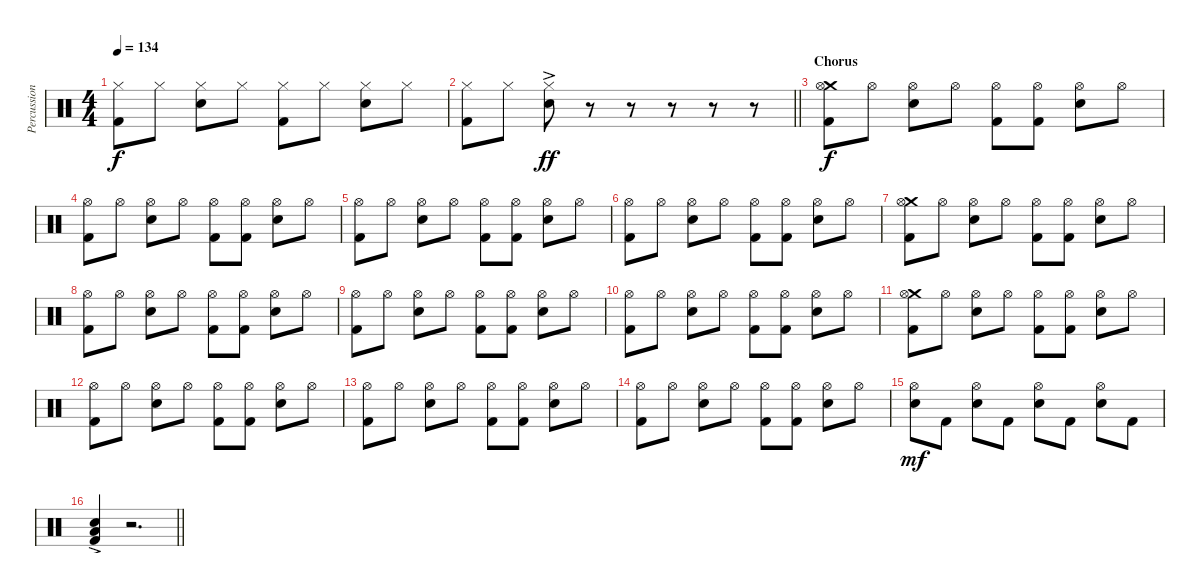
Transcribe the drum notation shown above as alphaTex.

\track ("Percussion" "Percussion") {instrument percussion}
\staff {score}
\articulation defaults
\ts (4 4)
\tempo 134
\clef neutral
\ks c
("Hi-Hat (closed)" "Kick (hit) 2").8{dy f} "Hi-Hat (closed)".8 ("Hi-Hat (closed)" "Snare (hit) 2").8 "Hi-Hat (closed)".8 ("Hi-Hat (closed)" "Kick (hit) 2").8 "Hi-Hat (closed)".8 ("Hi-Hat (closed)" "Snare (hit) 2").8 "Hi-Hat (closed)".8 |
\barLineRight lightlight
("Hi-Hat (closed)" "Kick (hit) 2").8 "Hi-Hat (closed)".8 ("Hi-Hat (closed)"{ac} "Snare (hit) 2"{ac}).8{dy ff} r.8 r.8 r.8 r.8 r.8 |
\section ("" "Chorus")
("Crash medium (hit)" "Hi-Hat (open)" "Kick (hit) 2").8{dy f} "Hi-Hat (open)".8 ("Hi-Hat (open)" "Snare (hit) 2").8 "Hi-Hat (open)".8 ("Hi-Hat (open)" "Kick (hit) 2").8 ("Hi-Hat (open)" "Kick (hit) 2").8 ("Hi-Hat (open)" "Snare (hit) 2").8 "Hi-Hat (open)".8 |
("Hi-Hat (open)" "Kick (hit) 2").8 "Hi-Hat (open)".8 ("Hi-Hat (open)" "Snare (hit) 2").8 "Hi-Hat (open)".8 ("Hi-Hat (open)" "Kick (hit) 2").8 ("Hi-Hat (open)" "Kick (hit) 2").8 ("Hi-Hat (open)" "Snare (hit) 2").8 "Hi-Hat (open)".8 |
("Hi-Hat (open)" "Kick (hit) 2").8 "Hi-Hat (open)".8 ("Hi-Hat (open)" "Snare (hit) 2").8 "Hi-Hat (open)".8 ("Hi-Hat (open)" "Kick (hit) 2").8 ("Hi-Hat (open)" "Kick (hit) 2").8 ("Hi-Hat (open)" "Snare (hit) 2").8 "Hi-Hat (open)".8 |
("Hi-Hat (open)" "Kick (hit) 2").8 "Hi-Hat (open)".8 ("Hi-Hat (open)" "Snare (hit) 2").8 "Hi-Hat (open)".8 ("Hi-Hat (open)" "Kick (hit) 2").8 ("Hi-Hat (open)" "Kick (hit) 2").8 ("Hi-Hat (open)" "Snare (hit) 2").8 "Hi-Hat (open)".8 |
("Crash medium (hit)" "Hi-Hat (open)" "Kick (hit) 2").8 "Hi-Hat (open)".8 ("Hi-Hat (open)" "Snare (hit) 2").8 "Hi-Hat (open)".8 ("Hi-Hat (open)" "Kick (hit) 2").8 ("Hi-Hat (open)" "Kick (hit) 2").8 ("Hi-Hat (open)" "Snare (hit) 2").8 "Hi-Hat (open)".8 |
("Hi-Hat (open)" "Kick (hit) 2").8 "Hi-Hat (open)".8 ("Hi-Hat (open)" "Snare (hit) 2").8 "Hi-Hat (open)".8 ("Hi-Hat (open)" "Kick (hit) 2").8 ("Hi-Hat (open)" "Kick (hit) 2").8 ("Hi-Hat (open)" "Snare (hit) 2").8 "Hi-Hat (open)".8 |
("Hi-Hat (open)" "Kick (hit) 2").8 "Hi-Hat (open)".8 ("Hi-Hat (open)" "Snare (hit) 2").8 "Hi-Hat (open)".8 ("Hi-Hat (open)" "Kick (hit) 2").8 ("Hi-Hat (open)" "Kick (hit) 2").8 ("Hi-Hat (open)" "Snare (hit) 2").8 "Hi-Hat (open)".8 |
("Hi-Hat (open)" "Kick (hit) 2").8 "Hi-Hat (open)".8 ("Hi-Hat (open)" "Snare (hit) 2").8 "Hi-Hat (open)".8 ("Hi-Hat (open)" "Kick (hit) 2").8 ("Hi-Hat (open)" "Kick (hit) 2").8 ("Hi-Hat (open)" "Snare (hit) 2").8 "Hi-Hat (open)".8 |
("Crash medium (hit)" "Hi-Hat (open)" "Kick (hit) 2").8 "Hi-Hat (open)".8 ("Hi-Hat (open)" "Snare (hit) 2").8 "Hi-Hat (open)".8 ("Hi-Hat (open)" "Kick (hit) 2").8 ("Hi-Hat (open)" "Kick (hit) 2").8 ("Hi-Hat (open)" "Snare (hit) 2").8 "Hi-Hat (open)".8 |
("Hi-Hat (open)" "Kick (hit) 2").8 "Hi-Hat (open)".8 ("Hi-Hat (open)" "Snare (hit) 2").8 "Hi-Hat (open)".8 ("Hi-Hat (open)" "Kick (hit) 2").8 ("Hi-Hat (open)" "Kick (hit) 2").8 ("Hi-Hat (open)" "Snare (hit) 2").8 "Hi-Hat (open)".8 |
("Hi-Hat (open)" "Kick (hit) 2").8 "Hi-Hat (open)".8 ("Hi-Hat (open)" "Snare (hit) 2").8 "Hi-Hat (open)".8 ("Hi-Hat (open)" "Kick (hit) 2").8 ("Hi-Hat (open)" "Kick (hit) 2").8 ("Hi-Hat (open)" "Snare (hit) 2").8 "Hi-Hat (open)".8 |
("Hi-Hat (open)" "Kick (hit) 2").8 "Hi-Hat (open)".8 ("Hi-Hat (open)" "Snare (hit) 2").8 "Hi-Hat (open)".8 ("Hi-Hat (open)" "Kick (hit) 2").8 ("Hi-Hat (open)" "Kick (hit) 2").8 ("Hi-Hat (open)" "Snare (hit) 2").8 "Hi-Hat (open)".8 |
("Hi-Hat (open)" "Snare (hit) 2").8{dy mf} "Kick (hit) 2".8 ("Hi-Hat (open)" "Snare (hit) 2").8 "Kick (hit) 2".8 ("Hi-Hat (open)" "Snare (hit) 2").8 "Kick (hit) 2".8 ("Hi-Hat (open)" "Snare (hit) 2").8 "Kick (hit) 2".8 |
\barLineRight lightlight
("Snare (hit) 2" "Low Floor Tom (hit)"{ac} "Kick (hit) 2").4 r.2{d}
